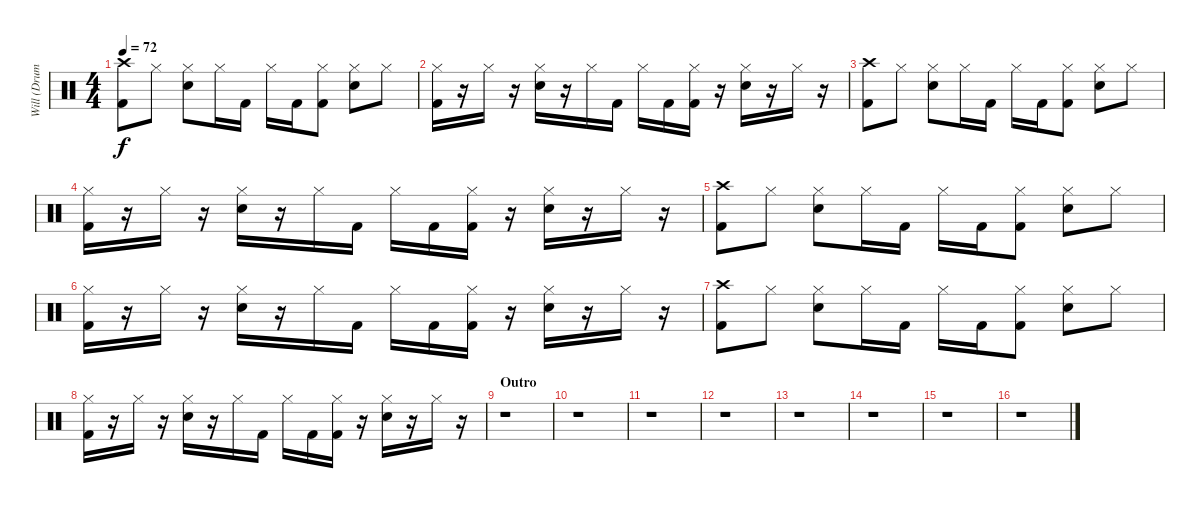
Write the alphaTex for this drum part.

\track ("Will (Drums)" "Will (Drum") {instrument percussion}
\staff {score}
\articulation defaults
\ts (4 4)
\tempo 72
\clef neutral
\ks c
("Crash high (hit)" "Kick (hit) 2").8{dy f} "Hi-Hat (closed)".8 ("Hi-Hat (closed)" "Snare (hit) 2").8 "Hi-Hat (closed)".16 "Kick (hit) 2".16 "Hi-Hat (closed)".16 "Kick (hit) 2".16 ("Hi-Hat (closed)" "Kick (hit) 2").8 ("Hi-Hat (closed)" "Snare (hit) 2").8 "Hi-Hat (closed)".8 |
("Hi-Hat (closed)" "Kick (hit) 2").16 r.16 "Hi-Hat (closed)".16 r.16 ("Hi-Hat (closed)" "Snare (hit) 2").16 r.16 "Hi-Hat (closed)".16 "Kick (hit) 2".16 "Hi-Hat (closed)".16 "Kick (hit) 2".16 ("Hi-Hat (closed)" "Kick (hit) 2").16 r.16 ("Hi-Hat (closed)" "Snare (hit) 2").16 r.16 "Hi-Hat (closed)".16 r.16 |
("Crash high (hit)" "Kick (hit) 2").8 "Hi-Hat (closed)".8 ("Hi-Hat (closed)" "Snare (hit) 2").8 "Hi-Hat (closed)".16 "Kick (hit) 2".16 "Hi-Hat (closed)".16 "Kick (hit) 2".16 ("Hi-Hat (closed)" "Kick (hit) 2").8 ("Hi-Hat (closed)" "Snare (hit) 2").8 "Hi-Hat (closed)".8 |
("Hi-Hat (closed)" "Kick (hit) 2").16 r.16 "Hi-Hat (closed)".16 r.16 ("Hi-Hat (closed)" "Snare (hit) 2").16 r.16 "Hi-Hat (closed)".16 "Kick (hit) 2".16 "Hi-Hat (closed)".16 "Kick (hit) 2".16 ("Hi-Hat (closed)" "Kick (hit) 2").16 r.16 ("Hi-Hat (closed)" "Snare (hit) 2").16 r.16 "Hi-Hat (closed)".16 r.16 |
("Crash high (hit)" "Kick (hit) 2").8 "Hi-Hat (closed)".8 ("Hi-Hat (closed)" "Snare (hit) 2").8 "Hi-Hat (closed)".16 "Kick (hit) 2".16 "Hi-Hat (closed)".16 "Kick (hit) 2".16 ("Hi-Hat (closed)" "Kick (hit) 2").8 ("Hi-Hat (closed)" "Snare (hit) 2").8 "Hi-Hat (closed)".8 |
("Hi-Hat (closed)" "Kick (hit) 2").16 r.16 "Hi-Hat (closed)".16 r.16 ("Hi-Hat (closed)" "Snare (hit) 2").16 r.16 "Hi-Hat (closed)".16 "Kick (hit) 2".16 "Hi-Hat (closed)".16 "Kick (hit) 2".16 ("Hi-Hat (closed)" "Kick (hit) 2").16 r.16 ("Hi-Hat (closed)" "Snare (hit) 2").16 r.16 "Hi-Hat (closed)".16 r.16 |
("Crash high (hit)" "Kick (hit) 2").8 "Hi-Hat (closed)".8 ("Hi-Hat (closed)" "Snare (hit) 2").8 "Hi-Hat (closed)".16 "Kick (hit) 2".16 "Hi-Hat (closed)".16 "Kick (hit) 2".16 ("Hi-Hat (closed)" "Kick (hit) 2").8 ("Hi-Hat (closed)" "Snare (hit) 2").8 "Hi-Hat (closed)".8 |
("Hi-Hat (closed)" "Kick (hit) 2").16 r.16 "Hi-Hat (closed)".16 r.16 ("Hi-Hat (closed)" "Snare (hit) 2").16 r.16 "Hi-Hat (closed)".16 "Kick (hit) 2".16 "Hi-Hat (closed)".16 "Kick (hit) 2".16 ("Hi-Hat (closed)" "Kick (hit) 2").16 r.16 ("Hi-Hat (closed)" "Snare (hit) 2").16 r.16 "Hi-Hat (closed)".16 r.16 |
\section ("" "Outro")
r.1 |
r.1 |
r.1 |
r.1 |
r.1 |
r.1 |
r.1 |
r.1
